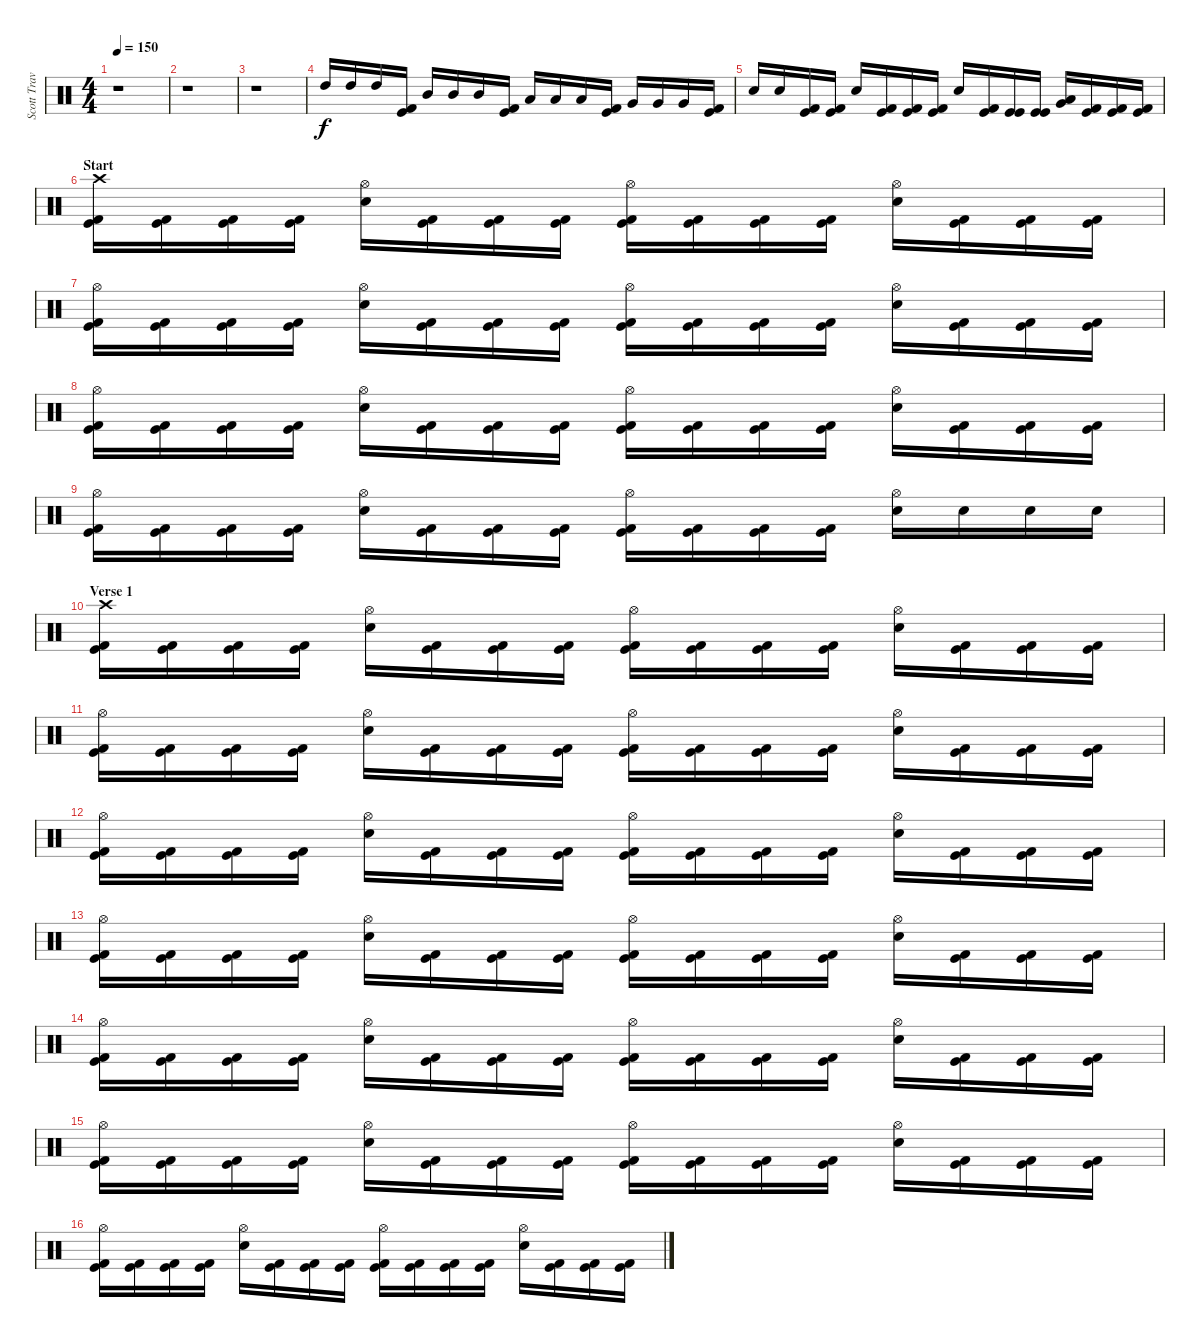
\track ("Scott Travis" "Scott Trav") {instrument percussion}
\staff {score}
\articulation defaults
\ts (4 4)
\tempo 150
\clef neutral
\ks c
r.1{dy f} |
r.1 |
r.1 |
"High Tom (hit)".16 "High Tom (hit)".16 "High Tom (hit)".16 ("Kick (hit)" "Kick (hit) 2").16 "Mid Tom (hit)".16 "Mid Tom (hit)".16 "Mid Tom (hit)".16 ("Kick (hit)" "Kick (hit) 2").16 "Low Tom (hit)".16 "Low Tom (hit)".16 "Low Tom (hit)".16 ("Kick (hit)" "Kick (hit) 2").16 "Very Low Tom (hit)".16 "Very Low Tom (hit)".16 "Very Low Tom (hit)".16 ("Kick (hit)" "Kick (hit) 2").16 |
"Electric Snare (hit)".16 "Electric Snare (hit)".16 ("Kick (hit)" "Kick (hit) 2").16 ("Kick (hit)" "Kick (hit) 2").16 "Electric Snare (hit)".16 ("Kick (hit)" "Kick (hit) 2").16 ("Kick (hit)" "Kick (hit) 2").16 ("Kick (hit)" "Kick (hit) 2").16 "Electric Snare (hit)".16 ("Kick (hit)" "Kick (hit) 2").16 ("Kick (hit)" "Kick (hit)").16 ("Kick (hit)" "Kick (hit)").16 ("Very Low Tom (hit)" "Low Floor Tom (hit)").16 ("Kick (hit)" "Kick (hit) 2").16 ("Kick (hit)" "Kick (hit) 2").16 ("Kick (hit)" "Kick (hit) 2").16 |
\section ("" "Start")
("Crash high (hit)" "Kick (hit)" "Kick (hit) 2").16 ("Kick (hit)" "Kick (hit) 2").16 ("Kick (hit)" "Kick (hit) 2").16 ("Kick (hit)" "Kick (hit) 2").16 ("Hi-Hat (open)" "Electric Snare (hit)").16 ("Kick (hit)" "Kick (hit) 2").16 ("Kick (hit)" "Kick (hit) 2").16 ("Kick (hit)" "Kick (hit) 2").16 ("Hi-Hat (open)" "Kick (hit)" "Kick (hit) 2").16 ("Kick (hit)" "Kick (hit) 2").16 ("Kick (hit)" "Kick (hit) 2").16 ("Kick (hit)" "Kick (hit) 2").16 ("Hi-Hat (open)" "Electric Snare (hit)").16 ("Kick (hit)" "Kick (hit) 2").16 ("Kick (hit)" "Kick (hit) 2").16 ("Kick (hit)" "Kick (hit) 2").16 |
("Hi-Hat (open)" "Kick (hit)" "Kick (hit) 2").16 ("Kick (hit)" "Kick (hit) 2").16 ("Kick (hit)" "Kick (hit) 2").16 ("Kick (hit)" "Kick (hit) 2").16 ("Hi-Hat (open)" "Electric Snare (hit)").16 ("Kick (hit)" "Kick (hit) 2").16 ("Kick (hit)" "Kick (hit) 2").16 ("Kick (hit)" "Kick (hit) 2").16 ("Hi-Hat (open)" "Kick (hit)" "Kick (hit) 2").16 ("Kick (hit)" "Kick (hit) 2").16 ("Kick (hit)" "Kick (hit) 2").16 ("Kick (hit)" "Kick (hit) 2").16 ("Hi-Hat (open)" "Electric Snare (hit)").16 ("Kick (hit)" "Kick (hit) 2").16 ("Kick (hit)" "Kick (hit) 2").16 ("Kick (hit)" "Kick (hit) 2").16 |
("Hi-Hat (open)" "Kick (hit)" "Kick (hit) 2").16 ("Kick (hit)" "Kick (hit) 2").16 ("Kick (hit)" "Kick (hit) 2").16 ("Kick (hit)" "Kick (hit) 2").16 ("Hi-Hat (open)" "Electric Snare (hit)").16 ("Kick (hit)" "Kick (hit) 2").16 ("Kick (hit)" "Kick (hit) 2").16 ("Kick (hit)" "Kick (hit) 2").16 ("Hi-Hat (open)" "Kick (hit)" "Kick (hit) 2").16 ("Kick (hit)" "Kick (hit) 2").16 ("Kick (hit)" "Kick (hit) 2").16 ("Kick (hit)" "Kick (hit) 2").16 ("Hi-Hat (open)" "Electric Snare (hit)").16 ("Kick (hit)" "Kick (hit) 2").16 ("Kick (hit)" "Kick (hit) 2").16 ("Kick (hit)" "Kick (hit) 2").16 |
("Hi-Hat (open)" "Kick (hit)" "Kick (hit) 2").16 ("Kick (hit)" "Kick (hit) 2").16 ("Kick (hit)" "Kick (hit) 2").16 ("Kick (hit)" "Kick (hit) 2").16 ("Hi-Hat (open)" "Electric Snare (hit)").16 ("Kick (hit)" "Kick (hit) 2").16 ("Kick (hit)" "Kick (hit) 2").16 ("Kick (hit)" "Kick (hit) 2").16 ("Hi-Hat (open)" "Kick (hit)" "Kick (hit) 2").16 ("Kick (hit)" "Kick (hit) 2").16 ("Kick (hit)" "Kick (hit) 2").16 ("Kick (hit)" "Kick (hit) 2").16 ("Hi-Hat (open)" "Electric Snare (hit)").16 "Electric Snare (hit)".16 "Electric Snare (hit)".16 "Electric Snare (hit)".16 |
\section ("" "Verse 1")
("Crash high (hit)" "Kick (hit)" "Kick (hit) 2").16 ("Kick (hit)" "Kick (hit) 2").16 ("Kick (hit)" "Kick (hit) 2").16 ("Kick (hit)" "Kick (hit) 2").16 ("Hi-Hat (open)" "Electric Snare (hit)").16 ("Kick (hit)" "Kick (hit) 2").16 ("Kick (hit)" "Kick (hit) 2").16 ("Kick (hit)" "Kick (hit) 2").16 ("Hi-Hat (open)" "Kick (hit)" "Kick (hit) 2").16 ("Kick (hit)" "Kick (hit) 2").16 ("Kick (hit)" "Kick (hit) 2").16 ("Kick (hit)" "Kick (hit) 2").16 ("Hi-Hat (open)" "Electric Snare (hit)").16 ("Kick (hit)" "Kick (hit) 2").16 ("Kick (hit)" "Kick (hit) 2").16 ("Kick (hit)" "Kick (hit) 2").16 |
("Hi-Hat (open)" "Kick (hit)" "Kick (hit) 2").16 ("Kick (hit)" "Kick (hit) 2").16 ("Kick (hit)" "Kick (hit) 2").16 ("Kick (hit)" "Kick (hit) 2").16 ("Hi-Hat (open)" "Electric Snare (hit)").16 ("Kick (hit)" "Kick (hit) 2").16 ("Kick (hit)" "Kick (hit) 2").16 ("Kick (hit)" "Kick (hit) 2").16 ("Hi-Hat (open)" "Kick (hit)" "Kick (hit) 2").16 ("Kick (hit)" "Kick (hit) 2").16 ("Kick (hit)" "Kick (hit) 2").16 ("Kick (hit)" "Kick (hit) 2").16 ("Hi-Hat (open)" "Electric Snare (hit)").16 ("Kick (hit)" "Kick (hit) 2").16 ("Kick (hit)" "Kick (hit) 2").16 ("Kick (hit)" "Kick (hit) 2").16 |
("Hi-Hat (open)" "Kick (hit)" "Kick (hit) 2").16 ("Kick (hit)" "Kick (hit) 2").16 ("Kick (hit)" "Kick (hit) 2").16 ("Kick (hit)" "Kick (hit) 2").16 ("Hi-Hat (open)" "Electric Snare (hit)").16 ("Kick (hit)" "Kick (hit) 2").16 ("Kick (hit)" "Kick (hit) 2").16 ("Kick (hit)" "Kick (hit) 2").16 ("Hi-Hat (open)" "Kick (hit)" "Kick (hit) 2").16 ("Kick (hit)" "Kick (hit) 2").16 ("Kick (hit)" "Kick (hit) 2").16 ("Kick (hit)" "Kick (hit) 2").16 ("Hi-Hat (open)" "Electric Snare (hit)").16 ("Kick (hit)" "Kick (hit) 2").16 ("Kick (hit)" "Kick (hit) 2").16 ("Kick (hit)" "Kick (hit) 2").16 |
("Hi-Hat (open)" "Kick (hit)" "Kick (hit) 2").16 ("Kick (hit)" "Kick (hit) 2").16 ("Kick (hit)" "Kick (hit) 2").16 ("Kick (hit)" "Kick (hit) 2").16 ("Hi-Hat (open)" "Electric Snare (hit)").16 ("Kick (hit)" "Kick (hit) 2").16 ("Kick (hit)" "Kick (hit) 2").16 ("Kick (hit)" "Kick (hit) 2").16 ("Hi-Hat (open)" "Kick (hit)" "Kick (hit) 2").16 ("Kick (hit)" "Kick (hit) 2").16 ("Kick (hit)" "Kick (hit) 2").16 ("Kick (hit)" "Kick (hit) 2").16 ("Hi-Hat (open)" "Electric Snare (hit)").16 ("Kick (hit)" "Kick (hit) 2").16 ("Kick (hit)" "Kick (hit) 2").16 ("Kick (hit)" "Kick (hit) 2").16 |
("Hi-Hat (open)" "Kick (hit)" "Kick (hit) 2").16 ("Kick (hit)" "Kick (hit) 2").16 ("Kick (hit)" "Kick (hit) 2").16 ("Kick (hit)" "Kick (hit) 2").16 ("Hi-Hat (open)" "Electric Snare (hit)").16 ("Kick (hit)" "Kick (hit) 2").16 ("Kick (hit)" "Kick (hit) 2").16 ("Kick (hit)" "Kick (hit) 2").16 ("Hi-Hat (open)" "Kick (hit)" "Kick (hit) 2").16 ("Kick (hit)" "Kick (hit) 2").16 ("Kick (hit)" "Kick (hit) 2").16 ("Kick (hit)" "Kick (hit) 2").16 ("Hi-Hat (open)" "Electric Snare (hit)").16 ("Kick (hit)" "Kick (hit) 2").16 ("Kick (hit)" "Kick (hit) 2").16 ("Kick (hit)" "Kick (hit) 2").16 |
("Hi-Hat (open)" "Kick (hit)" "Kick (hit) 2").16 ("Kick (hit)" "Kick (hit) 2").16 ("Kick (hit)" "Kick (hit) 2").16 ("Kick (hit)" "Kick (hit) 2").16 ("Hi-Hat (open)" "Electric Snare (hit)").16 ("Kick (hit)" "Kick (hit) 2").16 ("Kick (hit)" "Kick (hit) 2").16 ("Kick (hit)" "Kick (hit) 2").16 ("Hi-Hat (open)" "Kick (hit)" "Kick (hit) 2").16 ("Kick (hit)" "Kick (hit) 2").16 ("Kick (hit)" "Kick (hit) 2").16 ("Kick (hit)" "Kick (hit) 2").16 ("Hi-Hat (open)" "Electric Snare (hit)").16 ("Kick (hit)" "Kick (hit) 2").16 ("Kick (hit)" "Kick (hit) 2").16 ("Kick (hit)" "Kick (hit) 2").16 |
("Hi-Hat (open)" "Kick (hit)" "Kick (hit) 2").16 ("Kick (hit)" "Kick (hit) 2").16 ("Kick (hit)" "Kick (hit) 2").16 ("Kick (hit)" "Kick (hit) 2").16 ("Hi-Hat (open)" "Electric Snare (hit)").16 ("Kick (hit)" "Kick (hit) 2").16 ("Kick (hit)" "Kick (hit) 2").16 ("Kick (hit)" "Kick (hit) 2").16 ("Hi-Hat (open)" "Kick (hit)" "Kick (hit) 2").16 ("Kick (hit)" "Kick (hit) 2").16 ("Kick (hit)" "Kick (hit) 2").16 ("Kick (hit)" "Kick (hit) 2").16 ("Hi-Hat (open)" "Electric Snare (hit)").16 ("Kick (hit)" "Kick (hit) 2").16 ("Kick (hit)" "Kick (hit) 2").16 ("Kick (hit)" "Kick (hit) 2").16
